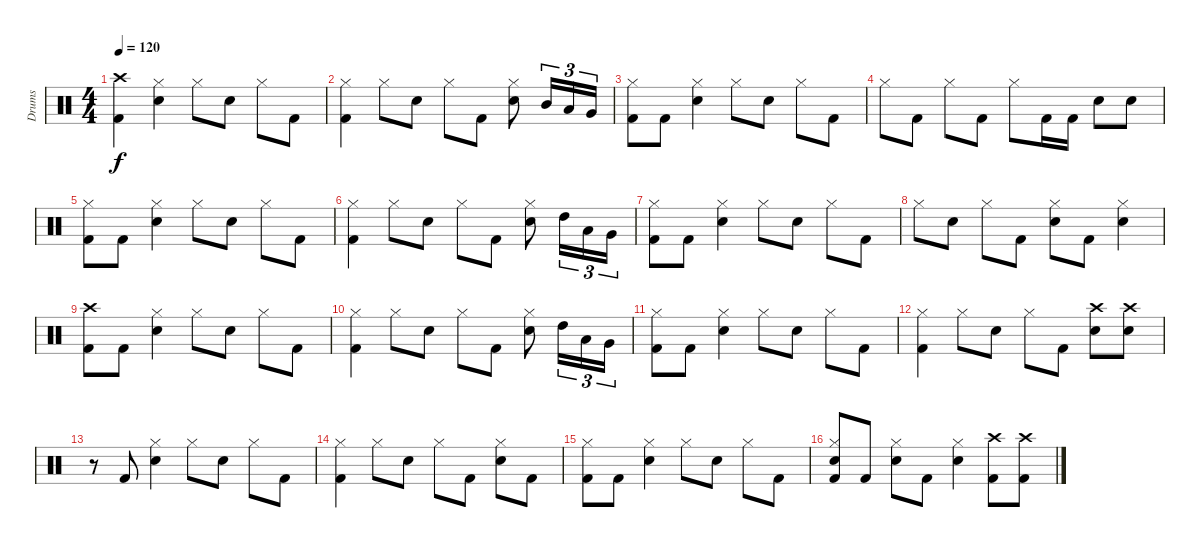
\track ("Drums" "Drums") {instrument percussion}
\staff {score}
\articulation defaults
\ts (4 4)
\tempo 120
\clef neutral
\ks c
("Crash high (hit)" "Kick (hit) 2").4{dy f} ("Hi-Hat (closed)" "Electric Snare (hit)").4 "Hi-Hat (closed)".8 "Electric Snare (hit)".8 "Hi-Hat (closed)".8 "Kick (hit) 2".8 |
("Hi-Hat (closed)" "Kick (hit) 2").4 "Hi-Hat (closed)".8 "Electric Snare (hit)".8 "Hi-Hat (closed)".8 "Kick (hit) 2".8 ("Hi-Hat (closed)" "Electric Snare (hit)").8 "Mid Tom (hit)".16{tu (3 2)} "Low Tom (hit)".16{tu (3 2)} "Very Low Tom (hit)".16{tu (3 2)} |
("Hi-Hat (closed)" "Kick (hit) 2").8 "Kick (hit) 2".8 ("Hi-Hat (closed)" "Electric Snare (hit)").4 "Hi-Hat (closed)".8 "Electric Snare (hit)".8 "Hi-Hat (closed)".8 "Kick (hit) 2".8 |
"Hi-Hat (closed)".8 "Kick (hit) 2".8 "Hi-Hat (closed)".8 "Kick (hit) 2".8 "Hi-Hat (closed)".8 "Kick (hit) 2".16 "Kick (hit) 2".16 "Electric Snare (hit)".8 "Electric Snare (hit)".8 |
("Hi-Hat (closed)" "Kick (hit) 2").8 "Kick (hit) 2".8 ("Hi-Hat (closed)" "Electric Snare (hit)").4 "Hi-Hat (closed)".8 "Electric Snare (hit)".8 "Hi-Hat (closed)".8 "Kick (hit) 2".8 |
("Hi-Hat (closed)" "Kick (hit) 2").4 "Hi-Hat (closed)".8 "Electric Snare (hit)".8 "Hi-Hat (closed)".8 "Kick (hit) 2".8 ("Hi-Hat (closed)" "Electric Snare (hit)").8 "High Tom (hit)".16{tu (3 2)} "Low Tom (hit)".16{tu (3 2)} "Very Low Tom (hit)".16{tu (3 2)} |
("Hi-Hat (closed)" "Kick (hit) 2").8 "Kick (hit) 2".8 ("Hi-Hat (closed)" "Electric Snare (hit)").4 "Hi-Hat (closed)".8 "Electric Snare (hit)".8 "Hi-Hat (closed)".8 "Kick (hit) 2".8 |
"Hi-Hat (closed)".8 "Electric Snare (hit)".8 "Hi-Hat (closed)".8 "Kick (hit) 2".8 ("Hi-Hat (closed)" "Electric Snare (hit)").8 "Kick (hit) 2".8 ("Hi-Hat (closed)" "Electric Snare (hit)").4 |
("Crash high (hit)" "Kick (hit) 2").8 "Kick (hit) 2".8 ("Hi-Hat (closed)" "Electric Snare (hit)").4 "Hi-Hat (closed)".8 "Electric Snare (hit)".8 "Hi-Hat (closed)".8 "Kick (hit) 2".8 |
("Hi-Hat (closed)" "Kick (hit) 2").4 "Hi-Hat (closed)".8 "Electric Snare (hit)".8 "Hi-Hat (closed)".8 "Kick (hit) 2".8 ("Hi-Hat (closed)" "Electric Snare (hit)").8 "High Tom (hit)".16{tu (3 2)} "Low Tom (hit)".16{tu (3 2)} "Very Low Tom (hit)".16{tu (3 2)} |
("Hi-Hat (closed)" "Kick (hit) 2").8 "Kick (hit) 2".8 ("Hi-Hat (closed)" "Electric Snare (hit)").4 "Hi-Hat (closed)".8 "Electric Snare (hit)".8 "Hi-Hat (closed)".8 "Kick (hit) 2".8 |
("Hi-Hat (closed)" "Kick (hit) 2").4 "Hi-Hat (closed)".8 "Electric Snare (hit)".8 "Hi-Hat (closed)".8 "Kick (hit) 2".8 ("Crash high (hit)" "Electric Snare (hit)").8 ("Crash high (hit)" "Electric Snare (hit)").8 |
r.8 "Kick (hit) 2".8 ("Hi-Hat (closed)" "Electric Snare (hit)").4 "Hi-Hat (closed)".8 "Electric Snare (hit)".8 "Hi-Hat (closed)".8 "Kick (hit) 2".8 |
("Hi-Hat (closed)" "Kick (hit) 2").4 "Hi-Hat (closed)".8 "Electric Snare (hit)".8 "Hi-Hat (closed)".8 "Kick (hit) 2".8 ("Hi-Hat (closed)" "Electric Snare (hit)").8 "Kick (hit) 2".8 |
("Hi-Hat (closed)" "Kick (hit) 2").8 "Kick (hit) 2".8 ("Hi-Hat (closed)" "Electric Snare (hit)").4 "Hi-Hat (closed)".8 "Electric Snare (hit)".8 "Hi-Hat (closed)".8 "Kick (hit) 2".8 |
("Hi-Hat (closed)" "Electric Snare (hit)" "Kick (hit) 2").8 "Kick (hit) 2".8 ("Hi-Hat (closed)" "Electric Snare (hit)").8 "Kick (hit) 2".8 ("Hi-Hat (closed)" "Electric Snare (hit)").4 ("Crash high (hit)" "Kick (hit) 2").8 ("Crash high (hit)" "Kick (hit) 2").8
